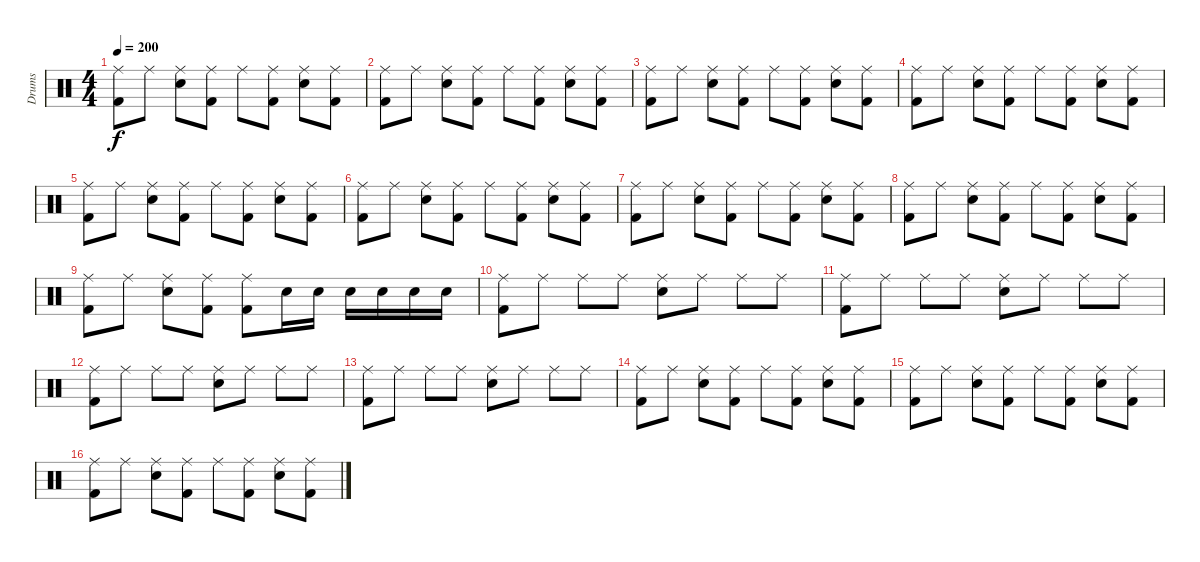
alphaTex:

\track ("Drums" "Drums") {instrument percussion}
\staff {score}
\articulation defaults
\ts (4 4)
\tempo 200
\clef neutral
\ks c
("Kick (hit) 2" "Ride (middle)").8{dy f} "Ride (middle)".8 ("Electric Snare (hit)" "Ride (middle)").8 ("Kick (hit) 2" "Ride (middle)").8 "Ride (middle)".8 ("Kick (hit) 2" "Ride (middle)").8 ("Electric Snare (hit)" "Ride (middle)").8 ("Kick (hit) 2" "Ride (middle)").8 |
("Kick (hit) 2" "Ride (middle)").8 "Ride (middle)".8 ("Electric Snare (hit)" "Ride (middle)").8 ("Kick (hit) 2" "Ride (middle)").8 "Ride (middle)".8 ("Kick (hit) 2" "Ride (middle)").8 ("Electric Snare (hit)" "Ride (middle)").8 ("Kick (hit) 2" "Ride (middle)").8 |
("Kick (hit) 2" "Ride (middle)").8 "Ride (middle)".8 ("Electric Snare (hit)" "Ride (middle)").8 ("Kick (hit) 2" "Ride (middle)").8 "Ride (middle)".8 ("Kick (hit) 2" "Ride (middle)").8 ("Electric Snare (hit)" "Ride (middle)").8 ("Kick (hit) 2" "Ride (middle)").8 |
("Kick (hit) 2" "Ride (middle)").8 "Ride (middle)".8 ("Electric Snare (hit)" "Ride (middle)").8 ("Kick (hit) 2" "Ride (middle)").8 "Ride (middle)".8 ("Kick (hit) 2" "Ride (middle)").8 ("Electric Snare (hit)" "Ride (middle)").8 ("Kick (hit) 2" "Ride (middle)").8 |
("Kick (hit) 2" "Ride (middle)").8 "Ride (middle)".8 ("Electric Snare (hit)" "Ride (middle)").8 ("Kick (hit) 2" "Ride (middle)").8 "Ride (middle)".8 ("Kick (hit) 2" "Ride (middle)").8 ("Electric Snare (hit)" "Ride (middle)").8 ("Kick (hit) 2" "Ride (middle)").8 |
("Kick (hit) 2" "Ride (middle)").8 "Ride (middle)".8 ("Electric Snare (hit)" "Ride (middle)").8 ("Kick (hit) 2" "Ride (middle)").8 "Ride (middle)".8 ("Kick (hit) 2" "Ride (middle)").8 ("Electric Snare (hit)" "Ride (middle)").8 ("Kick (hit) 2" "Ride (middle)").8 |
("Kick (hit) 2" "Ride (middle)").8 "Ride (middle)".8 ("Electric Snare (hit)" "Ride (middle)").8 ("Kick (hit) 2" "Ride (middle)").8 "Ride (middle)".8 ("Kick (hit) 2" "Ride (middle)").8 ("Electric Snare (hit)" "Ride (middle)").8 ("Kick (hit) 2" "Ride (middle)").8 |
("Kick (hit) 2" "Ride (middle)").8 "Ride (middle)".8 ("Electric Snare (hit)" "Ride (middle)").8 ("Kick (hit) 2" "Ride (middle)").8 "Ride (middle)".8 ("Kick (hit) 2" "Ride (middle)").8 ("Electric Snare (hit)" "Ride (middle)").8 ("Kick (hit) 2" "Ride (middle)").8 |
("Kick (hit) 2" "Ride (middle)").8 "Ride (middle)".8 ("Electric Snare (hit)" "Ride (middle)").8 ("Kick (hit) 2" "Ride (middle)").8 ("Kick (hit) 2" "Ride (middle)").8 "Electric Snare (hit)".16 "Electric Snare (hit)".16 "Electric Snare (hit)".16 "Electric Snare (hit)".16 "Electric Snare (hit)".16 "Electric Snare (hit)".16 |
("Kick (hit) 2" "Ride (middle)").8 "Ride (middle)".8 "Ride (middle)".8 "Ride (middle)".8 ("Electric Snare (hit)" "Ride (middle)").8 "Ride (middle)".8 "Ride (middle)".8 "Ride (middle)".8 |
("Kick (hit) 2" "Ride (middle)").8 "Ride (middle)".8 "Ride (middle)".8 "Ride (middle)".8 ("Electric Snare (hit)" "Ride (middle)").8 "Ride (middle)".8 "Ride (middle)".8 "Ride (middle)".8 |
("Kick (hit) 2" "Ride (middle)").8 "Ride (middle)".8 "Ride (middle)".8 "Ride (middle)".8 ("Electric Snare (hit)" "Ride (middle)").8 "Ride (middle)".8 "Ride (middle)".8 "Ride (middle)".8 |
("Kick (hit) 2" "Ride (middle)").8 "Ride (middle)".8 "Ride (middle)".8 "Ride (middle)".8 ("Electric Snare (hit)" "Ride (middle)").8 "Ride (middle)".8 "Ride (middle)".8 "Ride (middle)".8 |
("Kick (hit) 2" "Ride (middle)").8 "Ride (middle)".8 ("Electric Snare (hit)" "Ride (middle)").8 ("Kick (hit) 2" "Ride (middle)").8 "Ride (middle)".8 ("Kick (hit) 2" "Ride (middle)").8 ("Electric Snare (hit)" "Ride (middle)").8 ("Kick (hit) 2" "Ride (middle)").8 |
("Kick (hit) 2" "Ride (middle)").8 "Ride (middle)".8 ("Electric Snare (hit)" "Ride (middle)").8 ("Kick (hit) 2" "Ride (middle)").8 "Ride (middle)".8 ("Kick (hit) 2" "Ride (middle)").8 ("Electric Snare (hit)" "Ride (middle)").8 ("Kick (hit) 2" "Ride (middle)").8 |
("Kick (hit) 2" "Ride (middle)").8 "Ride (middle)".8 ("Electric Snare (hit)" "Ride (middle)").8 ("Kick (hit) 2" "Ride (middle)").8 "Ride (middle)".8 ("Kick (hit) 2" "Ride (middle)").8 ("Electric Snare (hit)" "Ride (middle)").8 ("Kick (hit) 2" "Ride (middle)").8
